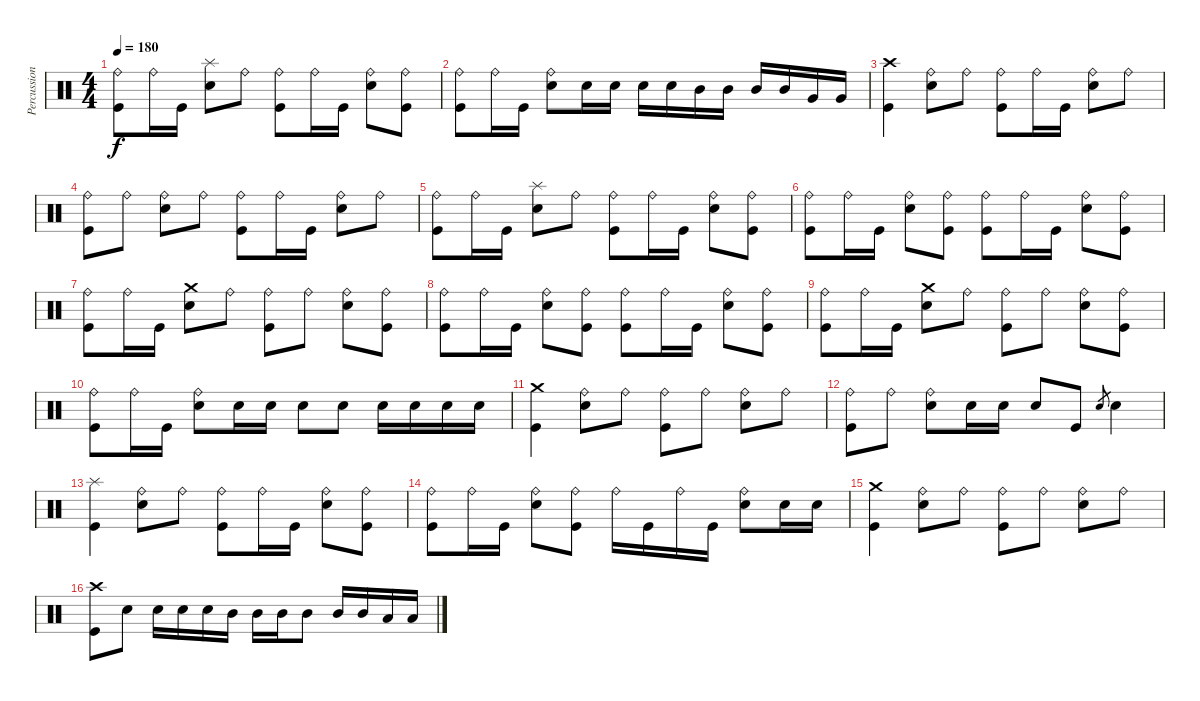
\track ("Percussions" "Percussion") {instrument percussion}
\staff {score}
\articulation defaults
\ts (4 4)
\tempo 180
\clef neutral
\ks c
("Kick (hit)" "Ride (bell)").8{dy f} "Ride (bell)".16 "Kick (hit)".16 ("Electric Snare (hit)" "Splash (hit)").8 "Ride (bell)".8 ("Kick (hit)" "Ride (bell)").8 "Ride (bell)".16 "Kick (hit)".16 ("Electric Snare (hit)" "Ride (bell)").8 ("Kick (hit)" "Ride (bell)").8 |
("Kick (hit)" "Ride (bell)").8 "Ride (bell)".16 "Kick (hit)".16 ("Electric Snare (hit)" "Ride (bell)").8 "Electric Snare (hit)".16 "Electric Snare (hit)".16 "Electric Snare (hit)".16 "Electric Snare (hit)".16 "Mid Tom (hit)".16 "Mid Tom (hit)".16 "Mid Tom (hit)".16 "Mid Tom (hit)".16 "Very Low Tom (hit)".16 "Very Low Tom (hit)".16 |
("Kick (hit)" "Crash high (hit)").4 ("Electric Snare (hit)" "Ride (bell)").8 "Ride (bell)".8 ("Kick (hit)" "Ride (bell)").8 "Ride (bell)".16 "Kick (hit)".16 ("Electric Snare (hit)" "Ride (bell)").8 "Ride (bell)".8 |
("Kick (hit)" "Ride (bell)").8 "Ride (bell)".8 ("Electric Snare (hit)" "Ride (bell)").8 "Ride (bell)".8 ("Kick (hit)" "Ride (bell)").8 "Ride (bell)".16 "Kick (hit)".16 ("Electric Snare (hit)" "Ride (bell)").8 "Ride (bell)".8 |
("Kick (hit)" "Ride (bell)").8 "Ride (bell)".16 "Kick (hit)".16 ("Electric Snare (hit)" "Splash (hit)").8 "Ride (bell)".8 ("Kick (hit)" "Ride (bell)").8 "Ride (bell)".16 "Kick (hit)".16 ("Electric Snare (hit)" "Ride (bell)").8 ("Kick (hit)" "Ride (bell)").8 |
("Kick (hit)" "Ride (bell)").8 "Ride (bell)".16 "Kick (hit)".16 ("Electric Snare (hit)" "Ride (bell)").8 ("Kick (hit)" "Ride (bell)").8 ("Kick (hit)" "Ride (bell)").8 "Ride (bell)".16 "Kick (hit)".16 ("Electric Snare (hit)" "Ride (bell)").8 ("Kick (hit)" "Ride (bell)").8 |
("Kick (hit)" "Ride (bell)").8 "Ride (bell)".16 "Kick (hit)".16 ("Electric Snare (hit)" "Crash medium (hit)").8 "Ride (bell)".8 ("Kick (hit)" "Ride (bell)").8 "Ride (bell)".8 ("Electric Snare (hit)" "Ride (bell)").8 ("Kick (hit)" "Ride (bell)").8 |
("Kick (hit)" "Ride (bell)").8 "Ride (bell)".16 "Kick (hit)".16 ("Electric Snare (hit)" "Ride (bell)").8 ("Kick (hit)" "Ride (bell)").8 ("Kick (hit)" "Ride (bell)").8 "Ride (bell)".16 "Kick (hit)".16 ("Electric Snare (hit)" "Ride (bell)").8 ("Kick (hit)" "Ride (bell)").8 |
("Kick (hit)" "Ride (bell)").8 "Ride (bell)".16 "Kick (hit)".16 ("Electric Snare (hit)" "Crash medium (hit)").8 "Ride (bell)".8 ("Kick (hit)" "Ride (bell)").8 "Ride (bell)".8 ("Electric Snare (hit)" "Ride (bell)").8 ("Kick (hit)" "Ride (bell)").8 |
("Kick (hit)" "Ride (bell)").8 "Ride (bell)".16 "Kick (hit)".16 ("Electric Snare (hit)" "Ride (bell)").8 "Electric Snare (hit)".16 "Electric Snare (hit)".16 "Electric Snare (hit)".8 "Electric Snare (hit)".8 "Electric Snare (hit)".16 "Electric Snare (hit)".16 "Electric Snare (hit)".16 "Electric Snare (hit)".16 |
("Kick (hit)" "Crash medium (hit)").4 ("Electric Snare (hit)" "Ride (bell)").8 "Ride (bell)".8 ("Kick (hit)" "Ride (bell)").8 "Ride (bell)".8 ("Electric Snare (hit)" "Ride (bell)").8 "Ride (bell)".8 |
("Kick (hit)" "Ride (bell)").8 "Ride (bell)".8 ("Electric Snare (hit)" "Ride (bell)").8 "Electric Snare (hit)".16 "Electric Snare (hit)".16 "Electric Snare (hit)".8 "Kick (hit)".8 "Electric Snare (hit)".8{gr} "Electric Snare (hit)".4 |
("Kick (hit)" "Splash (hit)").4 ("Electric Snare (hit)" "Ride (bell)").8 "Ride (bell)".8 ("Kick (hit)" "Ride (bell)").8 "Ride (bell)".16 "Kick (hit)".16 ("Electric Snare (hit)" "Ride (bell)").8 ("Kick (hit)" "Ride (bell)").8 |
("Kick (hit)" "Ride (bell)").8 "Ride (bell)".16 "Kick (hit)".16 ("Electric Snare (hit)" "Ride (bell)").8 ("Kick (hit)" "Ride (bell)").8 "Ride (bell)".16 "Kick (hit)".16 "Ride (bell)".16 "Kick (hit)".16 ("Electric Snare (hit)" "Ride (bell)").8 "Electric Snare (hit)".16 "Electric Snare (hit)".16 |
("Kick (hit)" "Crash medium (hit)").4 ("Electric Snare (hit)" "Ride (bell)").8 "Ride (bell)".8 ("Kick (hit)" "Ride (bell)").8 "Ride (bell)".8 ("Electric Snare (hit)" "Ride (bell)").8 "Ride (bell)".8 |
("Kick (hit)" "Crash high (hit)").8 "Electric Snare (hit)".8 "Electric Snare (hit)".16 "Electric Snare (hit)".16 "Electric Snare (hit)".16 "Mid Tom (hit)".16 "Mid Tom (hit)".16 "Mid Tom (hit)".16 "Mid Tom (hit)".8 "Mid Tom (hit)".16 "Mid Tom (hit)".16 "Low Tom (hit)".16 "Low Tom (hit)".16
